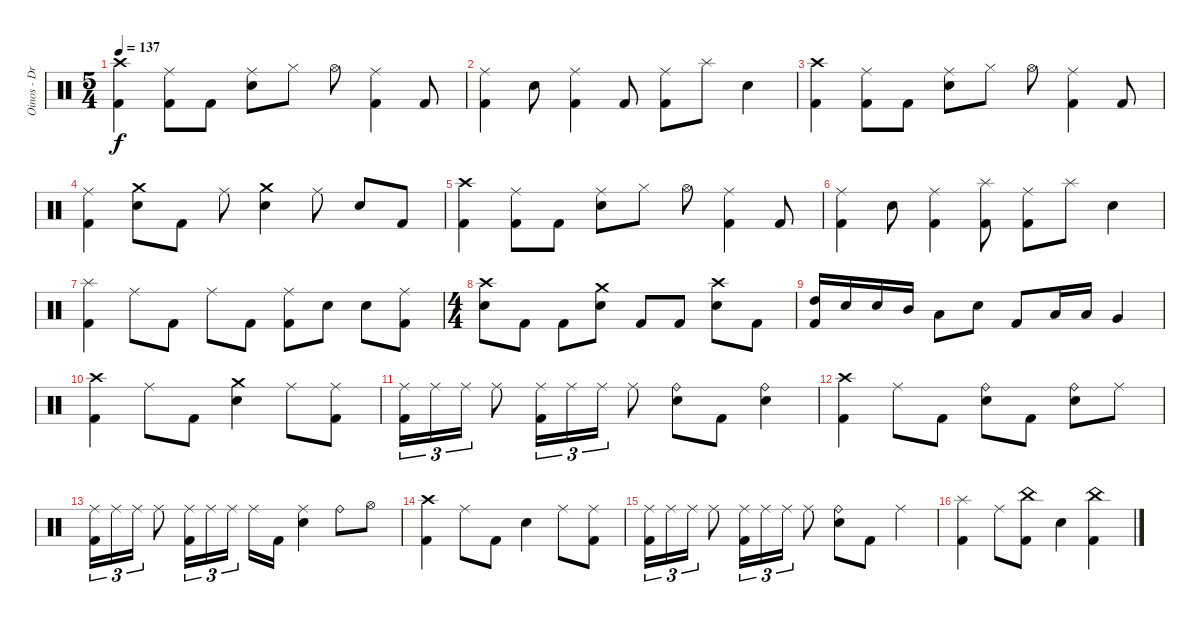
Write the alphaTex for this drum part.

\track ("Oinos - Drums" "Oinos - Dr") {instrument percussion}
\staff {score}
\articulation defaults
\ts (5 4)
\tempo 137
\clef neutral
\ks c
("Crash high (hit)" "Kick (hit) 2").4{dy f} ("Ride (middle)" "Kick (hit) 2").8 "Kick (hit) 2".8 ("Ride (middle)" "Electric Snare (hit)").8 "Hi-Hat (closed)".8 "Hi-Hat (open)".8 ("Ride (middle)" "Kick (hit) 2").4 "Kick (hit) 2".8 |
("Ride (middle)" "Kick (hit) 2").4 "Electric Snare (hit)".8 ("Ride (middle)" "Kick (hit) 2").4 "Kick (hit) 2".8 ("Ride (middle)" "Kick (hit) 2").8 "Splash (hit)".8 "Electric Snare (hit)".4 |
("Crash high (hit)" "Kick (hit) 2").4 ("Ride (middle)" "Kick (hit) 2").8 "Kick (hit) 2".8 ("Ride (middle)" "Electric Snare (hit)").8 "Hi-Hat (closed)".8 "Hi-Hat (open)".8 ("Ride (middle)" "Kick (hit) 2").4 "Kick (hit) 2".8 |
("Ride (middle)" "Kick (hit) 2").4 ("Crash medium (hit)" "Electric Snare (hit)").8 "Kick (hit) 2".8 "Ride (middle)".8 ("Crash medium (hit)" "Electric Snare (hit)").4 "Ride (middle)".8 "Electric Snare (hit)".8 "Kick (hit) 2".8 |
("Crash high (hit)" "Kick (hit) 2").4 ("Ride (middle)" "Kick (hit) 2").8 "Kick (hit) 2".8 ("Ride (middle)" "Electric Snare (hit)").8 "Hi-Hat (closed)".8 "Hi-Hat (open)".8 ("Ride (middle)" "Kick (hit) 2").4 "Kick (hit) 2".8 |
("Ride (middle)" "Kick (hit) 2").4 "Electric Snare (hit)".8 ("Ride (middle)" "Kick (hit) 2").4 ("Splash (hit)" "Kick (hit) 2").8 ("Ride (middle)" "Kick (hit) 2").8 "Splash (hit)".8 "Electric Snare (hit)".4 |
("Splash (hit)" "Kick (hit) 2").4 "Ride (middle)".8 "Kick (hit) 2".8 "Ride (middle)".8 "Kick (hit) 2".8 ("Ride (middle)" "Kick (hit) 2").8 "Electric Snare (hit)".8 "Electric Snare (hit)".8 ("Ride (middle)" "Kick (hit) 2").8 |
\ts (4 4)
("Crash high (hit)" "Electric Snare (hit)").8 "Kick (hit) 2".8 "Kick (hit) 2".8 ("Crash medium (hit)" "Electric Snare (hit)").8 "Kick (hit) 2".8 "Kick (hit) 2".8 ("Crash high (hit)" "Electric Snare (hit)").8 "Kick (hit) 2".8 |
("High Tom (hit)" "Kick (hit) 2").16 "Electric Snare (hit)".16 "Electric Snare (hit)".16 "Mid Tom (hit)".16 "Low Tom (hit)".8 "Electric Snare (hit)".8 "Kick (hit) 2".8 "Low Tom (hit)".16 "Low Tom (hit)".16 "Very Low Tom (hit)".4 |
("Crash high (hit)" "Kick (hit) 2").4 "Ride (middle)".8 "Kick (hit) 2".8 ("Crash medium (hit)" "Electric Snare (hit)").4 "Ride (middle)".8 ("Ride (middle)" "Kick (hit) 2").8 |
("Ride (middle)" "Kick (hit) 2").16{tu (3 2)} "Ride (middle)".16{tu (3 2)} "Ride (middle)".16{tu (3 2)} "Ride (middle)".8 ("Ride (middle)" "Kick (hit) 2").16{tu (3 2)} "Ride (middle)".16{tu (3 2)} "Ride (middle)".16{tu (3 2)} "Ride (middle)".8 ("Ride (bell)" "Electric Snare (hit)").8 "Kick (hit) 2".8 ("Ride (bell)" "Electric Snare (hit)").4 |
("Crash high (hit)" "Kick (hit) 2").4 "Ride (middle)".8 "Kick (hit) 2".8 ("Ride (bell)" "Electric Snare (hit)").8 "Kick (hit) 2".8 ("Ride (bell)" "Electric Snare (hit)").8 "Ride (middle)".8 |
("Ride (middle)" "Kick (hit) 2").16{tu (3 2)} "Ride (middle)".16{tu (3 2)} "Ride (middle)".16{tu (3 2)} "Ride (middle)".8 ("Ride (middle)" "Kick (hit) 2").16{tu (3 2)} "Ride (middle)".16{tu (3 2)} "Ride (middle)".16{tu (3 2) beam splitsecondary} "Ride (middle)".16 "Kick (hit) 2".16 ("Ride (middle)" "Electric Snare (hit)").4 "Ride (bell)".8 "Hi-Hat (open)".8 |
("Crash high (hit)" "Kick (hit) 2").4 "Ride (middle)".8 "Kick (hit) 2".8 "Electric Snare (hit)".4 "Ride (middle)".8 ("Ride (middle)" "Kick (hit) 2").8 |
("Ride (middle)" "Kick (hit) 2").16{tu (3 2)} "Ride (middle)".16{tu (3 2)} "Ride (middle)".16{tu (3 2)} "Ride (middle)".8 ("Ride (middle)" "Kick (hit) 2").16{tu (3 2)} "Ride (middle)".16{tu (3 2)} "Ride (middle)".16{tu (3 2)} "Ride (middle)".8 ("Ride (bell)" "Electric Snare (hit)").8 "Kick (hit) 2".8 "Ride (middle)".4 |
("Splash (hit)" "Kick (hit) 2").4 "Ride (middle)".8 ("China (hit)" "Kick (hit) 2").8 "Electric Snare (hit)".4 ("China (hit)" "Kick (hit) 2").4
